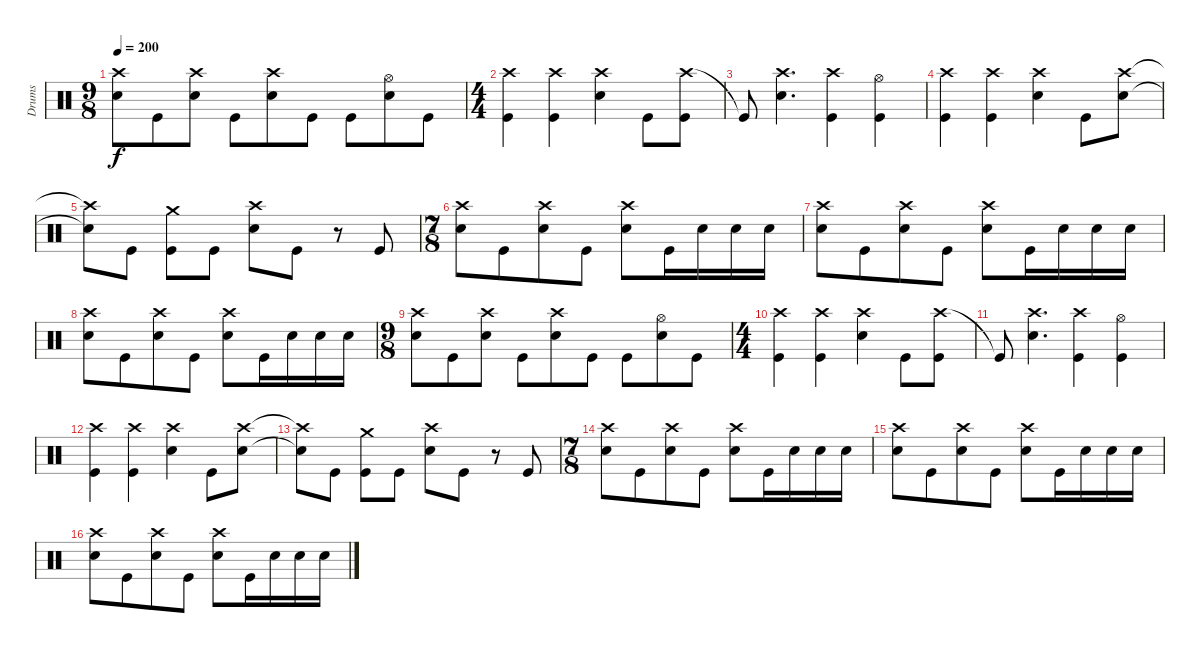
\track ("Drums" "Drums") {instrument percussion}
\staff {score}
\articulation defaults
\ts (9 8)
\tempo 200
\clef neutral
\ks c
("Crash high (hit)" "Snare (hit) 2").8{dy f} "Kick (hit)".8 ("Crash high (hit)" "Snare (hit) 2").8 "Kick (hit)".8 ("Crash high (hit)" "Snare (hit) 2").8 "Kick (hit)".8 "Kick (hit)".8 ("Hi-Hat (open)" "Snare (hit) 2").8 "Kick (hit)".8 |
\ts (4 4)
("Crash high (hit)" "Kick (hit)").4 ("Crash high (hit)" "Kick (hit)").4 ("Crash high (hit)" "Snare (hit) 2").4 "Kick (hit)".8 ("Crash high (hit)" "Kick (hit)").8 |
"Kick (hit)"{t}.8 ("Crash high (hit)" "Snare (hit) 2").4{d} ("Crash high (hit)" "Kick (hit)").4 ("Hi-Hat (open)" "Kick (hit)").4 |
("Crash high (hit)" "Kick (hit)").4 ("Crash high (hit)" "Kick (hit)").4 ("Crash high (hit)" "Snare (hit) 2").4 "Kick (hit)".8 ("Crash high (hit)" "Snare (hit) 2").8 |
("Crash high (hit)"{t} "Snare (hit) 2"{t}).8 "Kick (hit)".8 ("Crash medium (hit)" "Kick (hit)").8 "Kick (hit)".8 ("Crash high (hit)" "Snare (hit) 2").8 "Kick (hit)".8 r.8 "Kick (hit)".8 |
\ts (7 8)
("Crash high (hit)" "Snare (hit) 2").8 "Kick (hit)".8 ("Crash high (hit)" "Snare (hit) 2").8 "Kick (hit)".8 ("Crash high (hit)" "Snare (hit) 2").8 "Kick (hit)".16 "Snare (hit) 2".16 "Snare (hit) 2".16 "Snare (hit) 2".16 |
("Crash high (hit)" "Snare (hit) 2").8 "Kick (hit)".8 ("Crash high (hit)" "Snare (hit) 2").8 "Kick (hit)".8 ("Crash high (hit)" "Snare (hit) 2").8 "Kick (hit)".16 "Snare (hit) 2".16 "Snare (hit) 2".16 "Snare (hit) 2".16 |
("Crash high (hit)" "Snare (hit) 2").8 "Kick (hit)".8 ("Crash high (hit)" "Snare (hit) 2").8 "Kick (hit)".8 ("Crash high (hit)" "Snare (hit) 2").8 "Kick (hit)".16 "Snare (hit) 2".16 "Snare (hit) 2".16 "Snare (hit) 2".16 |
\ts (9 8)
("Crash high (hit)" "Snare (hit) 2").8 "Kick (hit)".8 ("Crash high (hit)" "Snare (hit) 2").8 "Kick (hit)".8 ("Crash high (hit)" "Snare (hit) 2").8 "Kick (hit)".8 "Kick (hit)".8 ("Hi-Hat (open)" "Snare (hit) 2").8 "Kick (hit)".8 |
\ts (4 4)
("Crash high (hit)" "Kick (hit)").4 ("Crash high (hit)" "Kick (hit)").4 ("Crash high (hit)" "Snare (hit) 2").4 "Kick (hit)".8 ("Crash high (hit)" "Kick (hit)").8 |
"Kick (hit)"{t}.8 ("Crash high (hit)" "Snare (hit) 2").4{d} ("Crash high (hit)" "Kick (hit)").4 ("Hi-Hat (open)" "Kick (hit)").4 |
("Crash high (hit)" "Kick (hit)").4 ("Crash high (hit)" "Kick (hit)").4 ("Crash high (hit)" "Snare (hit) 2").4 "Kick (hit)".8 ("Crash high (hit)" "Snare (hit) 2").8 |
("Crash high (hit)"{t} "Snare (hit) 2"{t}).8 "Kick (hit)".8 ("Crash medium (hit)" "Kick (hit)").8 "Kick (hit)".8 ("Crash high (hit)" "Snare (hit) 2").8 "Kick (hit)".8 r.8 "Kick (hit)".8 |
\ts (7 8)
("Crash high (hit)" "Snare (hit) 2").8 "Kick (hit)".8 ("Crash high (hit)" "Snare (hit) 2").8 "Kick (hit)".8 ("Crash high (hit)" "Snare (hit) 2").8 "Kick (hit)".16 "Snare (hit) 2".16 "Snare (hit) 2".16 "Snare (hit) 2".16 |
("Crash high (hit)" "Snare (hit) 2").8 "Kick (hit)".8 ("Crash high (hit)" "Snare (hit) 2").8 "Kick (hit)".8 ("Crash high (hit)" "Snare (hit) 2").8 "Kick (hit)".16 "Snare (hit) 2".16 "Snare (hit) 2".16 "Snare (hit) 2".16 |
("Crash high (hit)" "Snare (hit) 2").8 "Kick (hit)".8 ("Crash high (hit)" "Snare (hit) 2").8 "Kick (hit)".8 ("Crash high (hit)" "Snare (hit) 2").8 "Kick (hit)".16 "Snare (hit) 2".16 "Snare (hit) 2".16 "Snare (hit) 2".16
